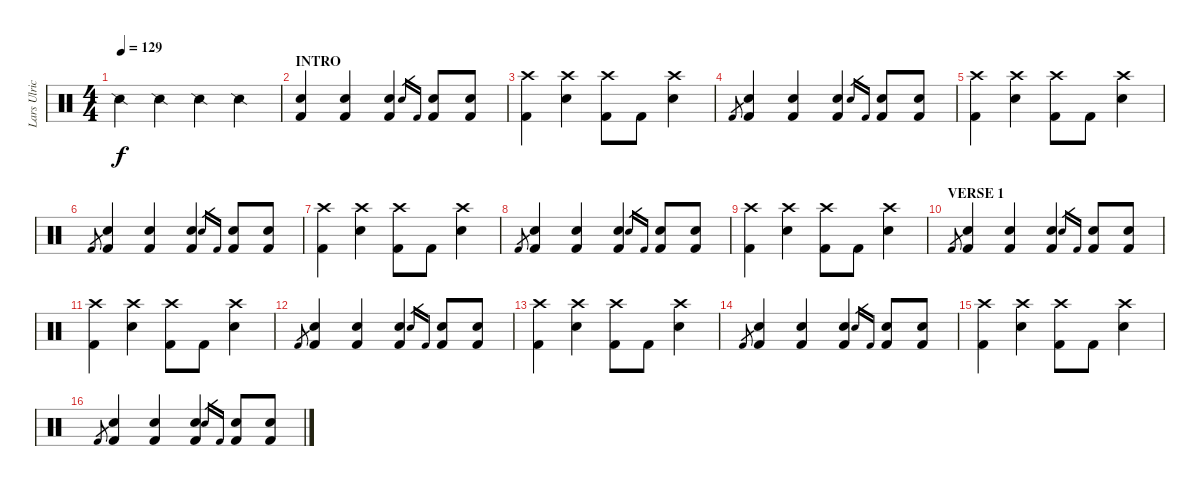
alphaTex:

\track ("Lars Ulrich [drums]" "Lars Ulric") {instrument percussion}
\staff {score}
\articulation defaults
\ts (4 4)
\tempo 129
\clef neutral
\ks c "Snare (side stick) 2".4{dy f} "Snare (side stick) 2".4 "Snare (side stick) 2".4 "Snare (side stick) 2".4
|
\section ("" "INTRO")
("Electric Snare (hit)" "Kick (hit) 2").4 ("Electric Snare (hit)" "Kick (hit) 2").4 ("Electric Snare (hit)" "Kick (hit) 2").4 "Electric Snare (hit)".16{gr} "Kick (hit) 2".16{gr} ("Electric Snare (hit)" "Kick (hit) 2").8 ("Electric Snare (hit)" "Kick (hit) 2").8 |
("Kick (hit) 2" "Crash high (hit)").4 ("Snare (hit) 2" "Crash high (hit)").4 ("Kick (hit) 2" "Crash high (hit)").8 "Kick (hit) 2".8 ("Snare (hit) 2" "Crash high (hit)").4 |
"Kick (hit) 2".8{gr} ("Electric Snare (hit)" "Kick (hit) 2").4 ("Electric Snare (hit)" "Kick (hit) 2").4 ("Electric Snare (hit)" "Kick (hit) 2").4 "Electric Snare (hit)".16{gr} "Kick (hit) 2".16{gr} ("Electric Snare (hit)" "Kick (hit) 2").8 ("Electric Snare (hit)" "Kick (hit) 2").8 |
("Kick (hit) 2" "Crash high (hit)").4 ("Snare (hit) 2" "Crash high (hit)").4 ("Kick (hit) 2" "Crash high (hit)").8 "Kick (hit) 2".8 ("Snare (hit) 2" "Crash high (hit)").4 |
"Kick (hit) 2".8{gr} ("Electric Snare (hit)" "Kick (hit) 2").4 ("Electric Snare (hit)" "Kick (hit) 2").4 ("Electric Snare (hit)" "Kick (hit) 2").4 "Electric Snare (hit)".16{gr} "Kick (hit) 2".16{gr} ("Electric Snare (hit)" "Kick (hit) 2").8 ("Electric Snare (hit)" "Kick (hit) 2").8 |
("Kick (hit) 2" "Crash high (hit)").4 ("Snare (hit) 2" "Crash high (hit)").4 ("Kick (hit) 2" "Crash high (hit)").8 "Kick (hit) 2".8 ("Snare (hit) 2" "Crash high (hit)").4 |
"Kick (hit) 2".8{gr} ("Electric Snare (hit)" "Kick (hit) 2").4 ("Electric Snare (hit)" "Kick (hit) 2").4 ("Electric Snare (hit)" "Kick (hit) 2").4 "Electric Snare (hit)".16{gr} "Kick (hit) 2".16{gr} ("Electric Snare (hit)" "Kick (hit) 2").8 ("Electric Snare (hit)" "Kick (hit) 2").8 |
("Kick (hit) 2" "Crash high (hit)").4 ("Snare (hit) 2" "Crash high (hit)").4 ("Kick (hit) 2" "Crash high (hit)").8 "Kick (hit) 2".8 ("Snare (hit) 2" "Crash high (hit)").4 |
\section ("" "VERSE 1")
"Kick (hit) 2".8{gr} ("Electric Snare (hit)" "Kick (hit) 2").4 ("Electric Snare (hit)" "Kick (hit) 2").4 ("Electric Snare (hit)" "Kick (hit) 2").4 "Electric Snare (hit)".16{gr} "Kick (hit) 2".16{gr} ("Electric Snare (hit)" "Kick (hit) 2").8 ("Electric Snare (hit)" "Kick (hit) 2").8 |
("Kick (hit) 2" "Crash high (hit)").4 ("Snare (hit) 2" "Crash high (hit)").4 ("Kick (hit) 2" "Crash high (hit)").8 "Kick (hit) 2".8 ("Snare (hit) 2" "Crash high (hit)").4 |
"Kick (hit) 2".8{gr} ("Electric Snare (hit)" "Kick (hit) 2").4 ("Electric Snare (hit)" "Kick (hit) 2").4 ("Electric Snare (hit)" "Kick (hit) 2").4 "Electric Snare (hit)".16{gr} "Kick (hit) 2".16{gr} ("Electric Snare (hit)" "Kick (hit) 2").8 ("Electric Snare (hit)" "Kick (hit) 2").8 |
("Kick (hit) 2" "Crash high (hit)").4 ("Snare (hit) 2" "Crash high (hit)").4 ("Kick (hit) 2" "Crash high (hit)").8 "Kick (hit) 2".8 ("Snare (hit) 2" "Crash high (hit)").4 |
"Kick (hit) 2".8{gr} ("Electric Snare (hit)" "Kick (hit) 2").4 ("Electric Snare (hit)" "Kick (hit) 2").4 ("Electric Snare (hit)" "Kick (hit) 2").4 "Electric Snare (hit)".16{gr} "Kick (hit) 2".16{gr} ("Electric Snare (hit)" "Kick (hit) 2").8 ("Electric Snare (hit)" "Kick (hit) 2").8 |
("Kick (hit) 2" "Crash high (hit)").4 ("Snare (hit) 2" "Crash high (hit)").4 ("Kick (hit) 2" "Crash high (hit)").8 "Kick (hit) 2".8 ("Snare (hit) 2" "Crash high (hit)").4 |
"Kick (hit) 2".8{gr} ("Electric Snare (hit)" "Kick (hit) 2").4 ("Electric Snare (hit)" "Kick (hit) 2").4 ("Electric Snare (hit)" "Kick (hit) 2").4 "Electric Snare (hit)".16{gr} "Kick (hit) 2".16{gr} ("Electric Snare (hit)" "Kick (hit) 2").8 ("Electric Snare (hit)" "Kick (hit) 2").8
